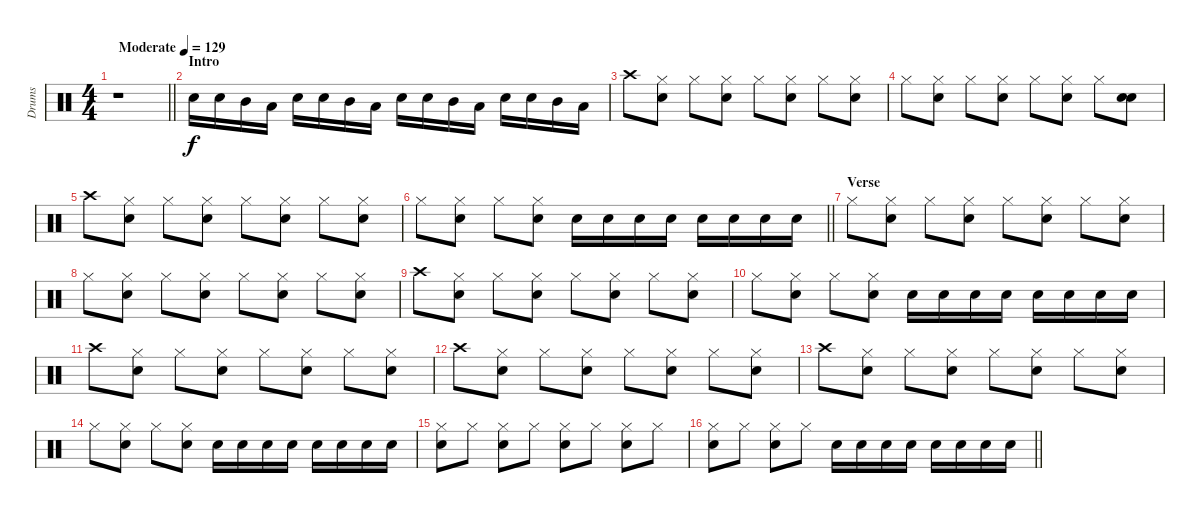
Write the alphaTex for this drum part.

\track ("Drums" "Drums") {instrument percussion}
\staff {score}
\articulation defaults
\ts (4 4)
\tempo (129 "Moderate")
\clef neutral
\barLineRight lightlight
\ks c
r.1{dy f} |
\section ("" "Intro")
"Electric Snare (hit)".16 "Electric Snare (hit)".16 "Mid Tom (hit)".16 "Low Tom (hit)".16 "Electric Snare (hit)".16 "Electric Snare (hit)".16 "Mid Tom (hit)".16 "Low Tom (hit)".16 "Electric Snare (hit)".16 "Electric Snare (hit)".16 "Mid Tom (hit)".16 "Low Tom (hit)".16 "Electric Snare (hit)".16 "Electric Snare (hit)".16 "Mid Tom (hit)".16 "Low Tom (hit)".16 |
"Crash high (hit)".8 ("Hi-Hat (closed)" "Electric Snare (hit)").8 "Hi-Hat (closed)".8 ("Hi-Hat (closed)" "Electric Snare (hit)").8 "Hi-Hat (closed)".8 ("Hi-Hat (closed)" "Electric Snare (hit)").8 "Hi-Hat (closed)".8 ("Hi-Hat (closed)" "Electric Snare (hit)").8 |
"Hi-Hat (closed)".8 ("Hi-Hat (closed)" "Electric Snare (hit)").8 "Hi-Hat (closed)".8 ("Hi-Hat (closed)" "Electric Snare (hit)").8 "Hi-Hat (closed)".8 ("Hi-Hat (closed)" "Electric Snare (hit)").8 "Hi-Hat (closed)".8 ("Electric Snare (hit)" "Electric Snare (hit)").8 |
"Crash high (hit)".8 ("Hi-Hat (closed)" "Electric Snare (hit)").8 "Hi-Hat (closed)".8 ("Hi-Hat (closed)" "Electric Snare (hit)").8 "Hi-Hat (closed)".8 ("Hi-Hat (closed)" "Electric Snare (hit)").8 "Hi-Hat (closed)".8 ("Hi-Hat (closed)" "Electric Snare (hit)").8 |
\barLineRight lightlight "Hi-Hat (closed)".8
("Hi-Hat (closed)" "Electric Snare (hit)").8 "Hi-Hat (closed)".8 ("Hi-Hat (closed)" "Electric Snare (hit)").8 "Electric Snare (hit)".16 "Electric Snare (hit)".16 "Electric Snare (hit)".16 "Electric Snare (hit)".16 "Electric Snare (hit)".16 "Electric Snare (hit)".16 "Electric Snare (hit)".16 "Electric Snare (hit)".16 |
\section ("" "Verse")
"Hi-Hat (closed)".8 ("Hi-Hat (closed)" "Electric Snare (hit)").8 "Hi-Hat (closed)".8 ("Hi-Hat (closed)" "Electric Snare (hit)").8 "Hi-Hat (closed)".8 ("Hi-Hat (closed)" "Electric Snare (hit)").8 "Hi-Hat (closed)".8 ("Hi-Hat (closed)" "Electric Snare (hit)").8 |
"Hi-Hat (closed)".8 ("Hi-Hat (closed)" "Electric Snare (hit)").8 "Hi-Hat (closed)".8 ("Hi-Hat (closed)" "Electric Snare (hit)").8 "Hi-Hat (closed)".8 ("Hi-Hat (closed)" "Electric Snare (hit)").8 "Hi-Hat (closed)".8 ("Hi-Hat (closed)" "Electric Snare (hit)").8 |
"Crash high (hit)".8 ("Hi-Hat (closed)" "Electric Snare (hit)").8 "Hi-Hat (closed)".8 ("Hi-Hat (closed)" "Electric Snare (hit)").8 "Hi-Hat (closed)".8 ("Hi-Hat (closed)" "Electric Snare (hit)").8 "Hi-Hat (closed)".8 ("Hi-Hat (closed)" "Electric Snare (hit)").8 |
"Hi-Hat (closed)".8 ("Hi-Hat (closed)" "Electric Snare (hit)").8 "Hi-Hat (closed)".8 ("Hi-Hat (closed)" "Electric Snare (hit)").8 "Electric Snare (hit)".16 "Electric Snare (hit)".16 "Electric Snare (hit)".16 "Electric Snare (hit)".16 "Electric Snare (hit)".16 "Electric Snare (hit)".16 "Electric Snare (hit)".16 "Electric Snare (hit)".16 |
"Crash high (hit)".8 ("Hi-Hat (closed)" "Electric Snare (hit)").8 "Hi-Hat (closed)".8 ("Hi-Hat (closed)" "Electric Snare (hit)").8 "Hi-Hat (closed)".8 ("Hi-Hat (closed)" "Electric Snare (hit)").8 "Hi-Hat (closed)".8 ("Hi-Hat (closed)" "Electric Snare (hit)").8 |
"Crash high (hit)".8 ("Hi-Hat (closed)" "Electric Snare (hit)").8 "Hi-Hat (closed)".8 ("Hi-Hat (closed)" "Electric Snare (hit)").8 "Hi-Hat (closed)".8 ("Hi-Hat (closed)" "Electric Snare (hit)").8 "Hi-Hat (closed)".8 ("Hi-Hat (closed)" "Electric Snare (hit)").8 |
"Crash high (hit)".8 ("Hi-Hat (closed)" "Electric Snare (hit)").8 "Hi-Hat (closed)".8 ("Hi-Hat (closed)" "Electric Snare (hit)").8 "Hi-Hat (closed)".8 ("Hi-Hat (closed)" "Electric Snare (hit)").8 "Hi-Hat (closed)".8 ("Hi-Hat (closed)" "Electric Snare (hit)").8 |
"Hi-Hat (closed)".8 ("Hi-Hat (closed)" "Electric Snare (hit)").8 "Hi-Hat (closed)".8 ("Hi-Hat (closed)" "Electric Snare (hit)").8 "Electric Snare (hit)".16 "Electric Snare (hit)".16 "Electric Snare (hit)".16 "Electric Snare (hit)".16 "Electric Snare (hit)".16 "Electric Snare (hit)".16 "Electric Snare (hit)".16 "Electric Snare (hit)".16 |
("Hi-Hat (closed)" "Electric Snare (hit)").8 "Hi-Hat (closed)".8 ("Hi-Hat (closed)" "Electric Snare (hit)").8 "Hi-Hat (closed)".8 ("Hi-Hat (closed)" "Electric Snare (hit)").8 "Hi-Hat (closed)".8 ("Hi-Hat (closed)" "Electric Snare (hit)").8 "Hi-Hat (closed)".8 |
\barLineRight lightlight
("Hi-Hat (closed)" "Electric Snare (hit)").8 "Hi-Hat (closed)".8 ("Hi-Hat (closed)" "Electric Snare (hit)").8 "Hi-Hat (closed)".8 "Electric Snare (hit)".16 "Electric Snare (hit)".16 "Electric Snare (hit)".16 "Electric Snare (hit)".16 "Electric Snare (hit)".16 "Electric Snare (hit)".16 "Electric Snare (hit)".16 "Electric Snare (hit)".16
